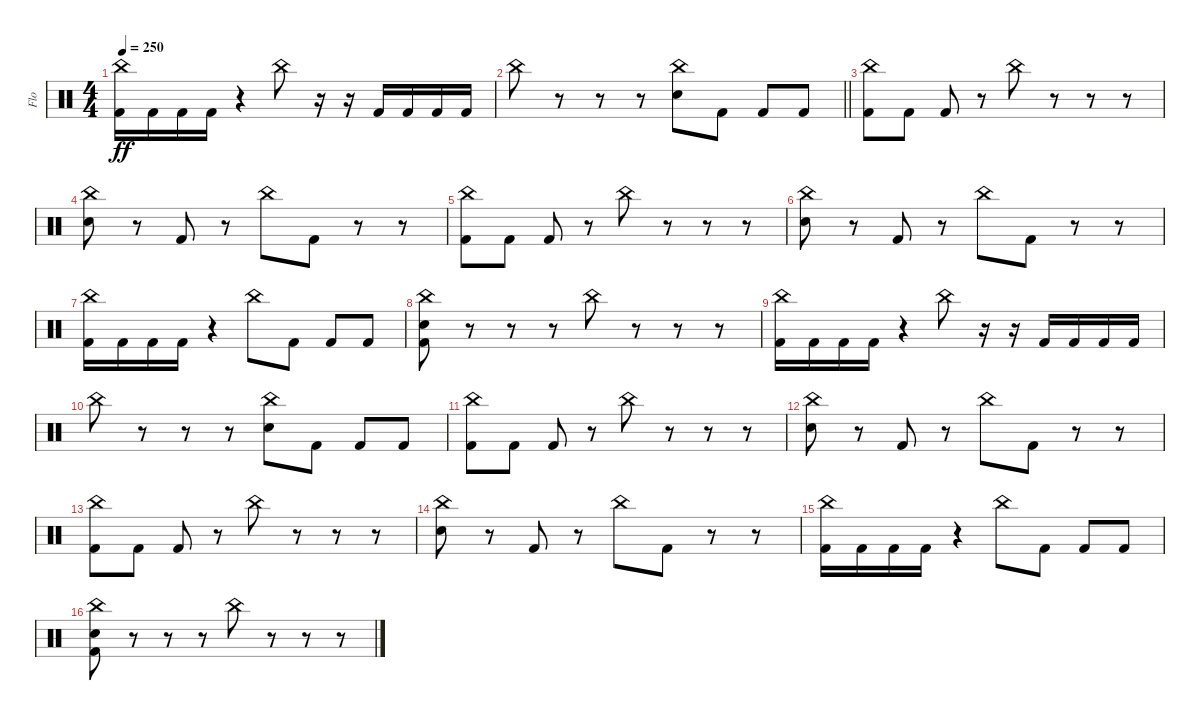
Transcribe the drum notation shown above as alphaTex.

\track ("Flo" "Flo") {instrument percussion}
\staff {score}
\articulation defaults
\ts (4 4)
\tempo 250
\clef neutral
\ks c
("China (hit)" "Kick (hit) 2").16{dy ff} "Kick (hit) 2".16 "Kick (hit) 2".16 "Kick (hit) 2".16 r.4 "China (hit)".8 r.16 r.16 "Kick (hit) 2".16 "Kick (hit) 2".16 "Kick (hit) 2".16 "Kick (hit) 2".16 |
\barLineRight lightlight "China (hit)".8
r.8 r.8 r.8 ("China (hit)" "Electric Snare (hit)").8 "Kick (hit) 2".8 "Kick (hit) 2".8 "Kick (hit) 2".8 |
("China (hit)" "Kick (hit) 2").8 "Kick (hit) 2".8 "Kick (hit) 2".8 r.8 "China (hit)".8 r.8 r.8 r.8 |
("China (hit)" "Electric Snare (hit)").8 r.8 "Kick (hit) 2".8 r.8 "China (hit)".8 "Kick (hit) 2".8 r.8 r.8 |
("China (hit)" "Kick (hit) 2").8 "Kick (hit) 2".8 "Kick (hit) 2".8 r.8 "China (hit)".8 r.8 r.8 r.8 |
("China (hit)" "Electric Snare (hit)").8 r.8 "Kick (hit) 2".8 r.8 "China (hit)".8 "Kick (hit) 2".8 r.8 r.8 |
("China (hit)" "Kick (hit) 2").16 "Kick (hit) 2".16 "Kick (hit) 2".16 "Kick (hit) 2".16 r.4 "China (hit)".8 "Kick (hit) 2".8 "Kick (hit) 2".8 "Kick (hit) 2".8 |
("China (hit)" "Electric Snare (hit)" "Kick (hit) 2").8 r.8 r.8 r.8 "China (hit)".8 r.8 r.8 r.8 |
("China (hit)" "Kick (hit) 2").16 "Kick (hit) 2".16 "Kick (hit) 2".16 "Kick (hit) 2".16 r.4 "China (hit)".8 r.16 r.16 "Kick (hit) 2".16 "Kick (hit) 2".16 "Kick (hit) 2".16 "Kick (hit) 2".16 |
"China (hit)".8 r.8 r.8 r.8 ("China (hit)" "Electric Snare (hit)").8 "Kick (hit) 2".8 "Kick (hit) 2".8 "Kick (hit) 2".8 |
("China (hit)" "Kick (hit) 2").8 "Kick (hit) 2".8 "Kick (hit) 2".8 r.8 "China (hit)".8 r.8 r.8 r.8 |
("China (hit)" "Electric Snare (hit)").8 r.8 "Kick (hit) 2".8 r.8 "China (hit)".8 "Kick (hit) 2".8 r.8 r.8 |
("China (hit)" "Kick (hit) 2").8 "Kick (hit) 2".8 "Kick (hit) 2".8 r.8 "China (hit)".8 r.8 r.8 r.8 |
("China (hit)" "Electric Snare (hit)").8 r.8 "Kick (hit) 2".8 r.8 "China (hit)".8 "Kick (hit) 2".8 r.8 r.8 |
("China (hit)" "Kick (hit) 2").16 "Kick (hit) 2".16 "Kick (hit) 2".16 "Kick (hit) 2".16 r.4 "China (hit)".8 "Kick (hit) 2".8 "Kick (hit) 2".8 "Kick (hit) 2".8 |
("China (hit)" "Electric Snare (hit)" "Kick (hit) 2").8 r.8 r.8 r.8 "China (hit)".8 r.8 r.8 r.8
